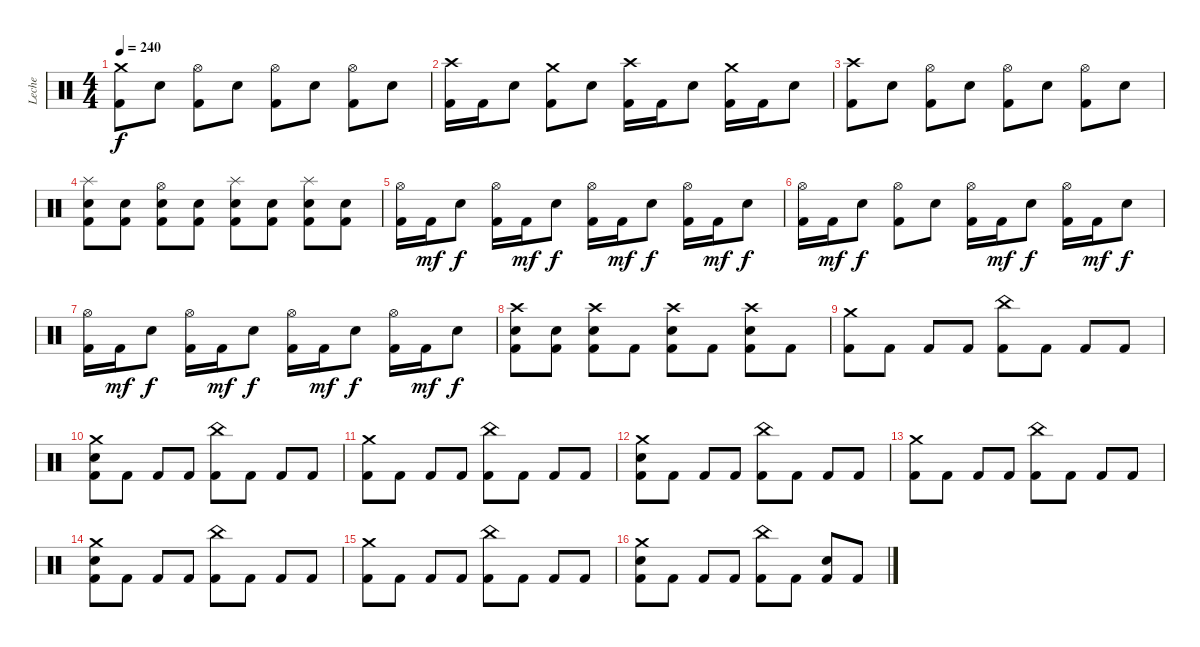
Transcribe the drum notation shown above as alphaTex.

\track ("Leche" "Leche") {instrument percussion}
\staff {score}
\articulation defaults
\ts (4 4)
\tempo 240
\clef neutral
\ks c
("Crash medium (hit)" "Kick (hit) 2").8{dy f} "Electric Snare (hit)".8 ("Hi-Hat (open)" "Kick (hit) 2").8 "Electric Snare (hit)".8 ("Hi-Hat (open)" "Kick (hit) 2").8 "Electric Snare (hit)".8 ("Hi-Hat (open)" "Kick (hit) 2").8 "Electric Snare (hit)".8 |
("Crash high (hit)" "Kick (hit) 2").16 "Kick (hit) 2".16 "Electric Snare (hit)".8 ("Crash medium (hit)" "Kick (hit) 2").8 "Electric Snare (hit)".8 ("Crash high (hit)" "Kick (hit) 2").16 "Kick (hit) 2".16 "Electric Snare (hit)".8 ("Crash medium (hit)" "Kick (hit) 2").16 "Kick (hit) 2".16 "Electric Snare (hit)".8 |
("Crash high (hit)" "Kick (hit) 2").8 "Electric Snare (hit)".8 ("Hi-Hat (open)" "Kick (hit) 2").8 "Electric Snare (hit)".8 ("Hi-Hat (open)" "Kick (hit) 2").8 "Electric Snare (hit)".8 ("Hi-Hat (open)" "Kick (hit) 2").8 "Electric Snare (hit)".8 |
("Splash (hit)" "Electric Snare (hit)" "Kick (hit) 2").8 ("Electric Snare (hit)" "Kick (hit) 2").8 ("Hi-Hat (open)" "Electric Snare (hit)" "Kick (hit) 2").8 ("Electric Snare (hit)" "Kick (hit) 2").8 ("Splash (hit)" "Electric Snare (hit)" "Kick (hit) 2").8 ("Electric Snare (hit)" "Kick (hit) 2").8 ("Splash (hit)" "Electric Snare (hit)" "Kick (hit) 2").8 ("Electric Snare (hit)" "Kick (hit) 2").8 |
("Hi-Hat (open)" "Kick (hit) 2").16 "Kick (hit) 2".16{dy mf} "Electric Snare (hit)".8{dy f} ("Hi-Hat (open)" "Kick (hit) 2").16 "Kick (hit) 2".16{dy mf} "Electric Snare (hit)".8{dy f} ("Hi-Hat (open)" "Kick (hit) 2").16 "Kick (hit) 2".16{dy mf} "Electric Snare (hit)".8{dy f} ("Hi-Hat (open)" "Kick (hit) 2").16 "Kick (hit) 2".16{dy mf} "Electric Snare (hit)".8{dy f} |
("Hi-Hat (open)" "Kick (hit) 2").16 "Kick (hit) 2".16{dy mf} "Electric Snare (hit)".8{dy f} ("Hi-Hat (open)" "Kick (hit) 2").8 "Electric Snare (hit)".8 ("Hi-Hat (open)" "Kick (hit) 2").16 "Kick (hit) 2".16{dy mf} "Electric Snare (hit)".8{dy f} ("Hi-Hat (open)" "Kick (hit) 2").16 "Kick (hit) 2".16{dy mf} "Electric Snare (hit)".8{dy f} |
("Hi-Hat (open)" "Kick (hit) 2").16 "Kick (hit) 2".16{dy mf} "Electric Snare (hit)".8{dy f} ("Hi-Hat (open)" "Kick (hit) 2").16 "Kick (hit) 2".16{dy mf} "Electric Snare (hit)".8{dy f} ("Hi-Hat (open)" "Kick (hit) 2").16 "Kick (hit) 2".16{dy mf} "Electric Snare (hit)".8{dy f} ("Hi-Hat (open)" "Kick (hit) 2").16 "Kick (hit) 2".16{dy mf} "Electric Snare (hit)".8{dy f} |
("Crash high (hit)" "Electric Snare (hit)" "Kick (hit) 2").8 ("Electric Snare (hit)" "Kick (hit) 2").8 ("Crash high (hit)" "Electric Snare (hit)" "Kick (hit) 2").8 "Kick (hit) 2".8 ("Crash high (hit)" "Electric Snare (hit)" "Kick (hit) 2").8 "Kick (hit) 2".8 ("Crash high (hit)" "Electric Snare (hit)" "Kick (hit) 2").8 "Kick (hit) 2".8 |
("Crash medium (hit)" "Kick (hit) 2").8 "Kick (hit) 2".8 "Kick (hit) 2".8 "Kick (hit) 2".8 ("China (hit)" "Kick (hit) 2").8 "Kick (hit) 2".8 "Kick (hit) 2".8 "Kick (hit) 2".8 |
("Crash medium (hit)" "Electric Snare (hit)" "Kick (hit) 2").8 "Kick (hit) 2".8 "Kick (hit) 2".8 "Kick (hit) 2".8 ("China (hit)" "Kick (hit) 2").8 "Kick (hit) 2".8 "Kick (hit) 2".8 "Kick (hit) 2".8 |
("Crash medium (hit)" "Kick (hit) 2").8 "Kick (hit) 2".8 "Kick (hit) 2".8 "Kick (hit) 2".8 ("China (hit)" "Kick (hit) 2").8 "Kick (hit) 2".8 "Kick (hit) 2".8 "Kick (hit) 2".8 |
("Crash medium (hit)" "Electric Snare (hit)" "Kick (hit) 2").8 "Kick (hit) 2".8 "Kick (hit) 2".8 "Kick (hit) 2".8 ("China (hit)" "Kick (hit) 2").8 "Kick (hit) 2".8 "Kick (hit) 2".8 "Kick (hit) 2".8 |
("Crash medium (hit)" "Kick (hit) 2").8 "Kick (hit) 2".8 "Kick (hit) 2".8 "Kick (hit) 2".8 ("China (hit)" "Kick (hit) 2").8 "Kick (hit) 2".8 "Kick (hit) 2".8 "Kick (hit) 2".8 |
("Crash medium (hit)" "Electric Snare (hit)" "Kick (hit) 2").8 "Kick (hit) 2".8 "Kick (hit) 2".8 "Kick (hit) 2".8 ("China (hit)" "Kick (hit) 2").8 "Kick (hit) 2".8 "Kick (hit) 2".8 "Kick (hit) 2".8 |
("Crash medium (hit)" "Kick (hit) 2").8 "Kick (hit) 2".8 "Kick (hit) 2".8 "Kick (hit) 2".8 ("China (hit)" "Kick (hit) 2").8 "Kick (hit) 2".8 "Kick (hit) 2".8 "Kick (hit) 2".8 |
("Crash medium (hit)" "Electric Snare (hit)" "Kick (hit) 2").8 "Kick (hit) 2".8 "Kick (hit) 2".8 "Kick (hit) 2".8 ("China (hit)" "Kick (hit) 2").8 "Kick (hit) 2".8 ("Electric Snare (hit)" "Kick (hit) 2").8 "Kick (hit) 2".8
